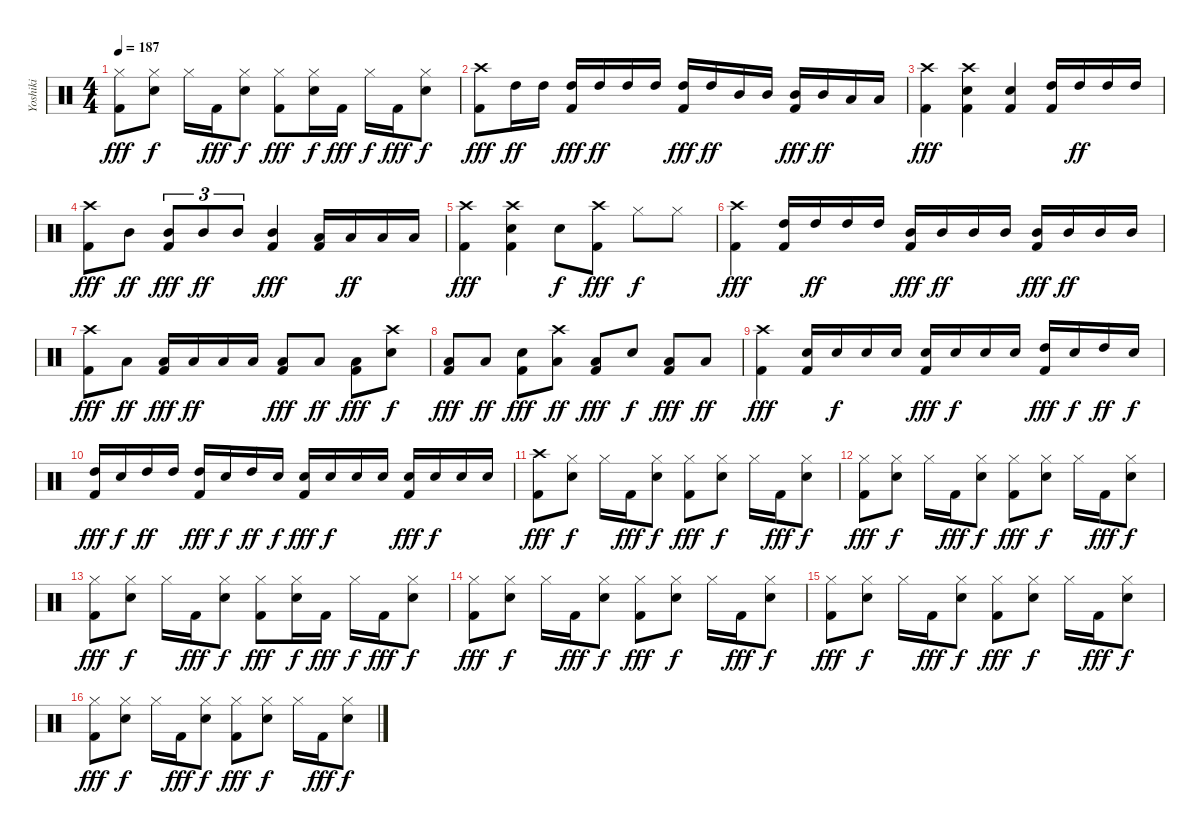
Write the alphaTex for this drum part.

\track ("Yoshiki" "Yoshiki") {instrument percussion}
\staff {score}
\articulation defaults
\ts (4 4)
\tempo 187
\clef neutral
\ks c
("Hi-Hat (closed)" "Kick (hit) 2").8{dy fff} ("Hi-Hat (closed)" "Electric Snare (hit)").8{dy f} "Hi-Hat (closed)".16 "Kick (hit) 2".16{dy fff} ("Hi-Hat (closed)" "Electric Snare (hit)").8{dy f} ("Hi-Hat (closed)" "Kick (hit) 2").8{dy fff} ("Hi-Hat (closed)" "Electric Snare (hit)").16{dy f} "Kick (hit) 2".16{dy fff} "Hi-Hat (closed)".16{dy f} "Kick (hit) 2".16{dy fff} ("Hi-Hat (closed)" "Electric Snare (hit)").8{dy f} |
("Crash high (hit)" "Kick (hit) 2").8{dy fff} "High Tom (hit)".16{dy ff} "High Tom (hit)".16 ("High Tom (hit)" "Kick (hit) 2").16{dy fff} "High Tom (hit)".16{dy ff} "High Tom (hit)".16 "High Tom (hit)".16 ("High Tom (hit)" "Kick (hit) 2").16{dy fff} "High Tom (hit)".16{dy ff} "Mid Tom (hit)".16 "Mid Tom (hit)".16 ("Mid Tom (hit)" "Kick (hit) 2").16{dy fff} "Mid Tom (hit)".16{dy ff} "Low Tom (hit)".16 "Low Tom (hit)".16 |
("Crash high (hit)" "Kick (hit) 2").4{dy fff} ("Crash high (hit)" "Electric Snare (hit)" "Kick (hit) 2").4 ("Electric Snare (hit)" "Kick (hit) 2").4 ("High Tom (hit)" "Kick (hit) 2").16 "High Tom (hit)".16{dy ff} "High Tom (hit)".16 "High Tom (hit)".16 |
("Crash high (hit)" "Kick (hit) 2").8{dy fff} "Mid Tom (hit)".8{dy ff} ("Mid Tom (hit)" "Kick (hit) 2").8{tu (3 2) dy fff} "Mid Tom (hit)".8{tu (3 2) dy ff} "Mid Tom (hit)".8{tu (3 2)} ("Mid Tom (hit)" "Kick (hit) 2").4{dy fff} ("Low Tom (hit)" "Kick (hit) 2").16 "Low Tom (hit)".16{dy ff} "Low Tom (hit)".16 "Low Tom (hit)".16 |
("Crash high (hit)" "Kick (hit) 2").4{dy fff} ("Crash high (hit)" "Electric Snare (hit)" "Kick (hit) 2").4 "Electric Snare (hit)".8{dy f} ("Crash high (hit)" "Kick (hit) 2").8{dy fff} "Hi-Hat (closed)".8{dy f} "Hi-Hat (closed)".8 |
("Crash high (hit)" "Kick (hit) 2").4{dy fff} ("High Tom (hit)" "Kick (hit) 2").16 "High Tom (hit)".16{dy ff} "High Tom (hit)".16 "High Tom (hit)".16 ("Mid Tom (hit)" "Kick (hit) 2").16{dy fff} "Mid Tom (hit)".16{dy ff} "Mid Tom (hit)".16 "Mid Tom (hit)".16 ("Mid Tom (hit)" "Kick (hit) 2").16{dy fff} "Mid Tom (hit)".16{dy ff} "Mid Tom (hit)".16 "Mid Tom (hit)".16 |
("Crash high (hit)" "Kick (hit) 2").8{dy fff} "Low Tom (hit)".8{dy ff} ("Low Tom (hit)" "Kick (hit) 2").16{dy fff} "Low Tom (hit)".16{dy ff} "Low Tom (hit)".16 "Low Tom (hit)".16 ("Low Tom (hit)" "Kick (hit) 2").8{dy fff} "Low Tom (hit)".8{dy ff} ("Low Tom (hit)" "Kick (hit) 2").8{dy fff} ("Crash high (hit)" "Electric Snare (hit)").8{dy f} |
("Low Tom (hit)" "Kick (hit) 2").8{dy fff} "Low Tom (hit)".8{dy ff} ("Electric Snare (hit)" "Kick (hit) 2").8{dy fff} ("Crash high (hit)" "Low Tom (hit)").8{dy ff} ("Low Tom (hit)" "Kick (hit) 2").8{dy fff} "Electric Snare (hit)".8{dy f} ("Low Tom (hit)" "Kick (hit) 2").8{dy fff} "Low Tom (hit)".8{dy ff} |
("Crash high (hit)" "Kick (hit) 2").4{dy fff} ("Electric Snare (hit)" "Kick (hit) 2").16 "Electric Snare (hit)".16{dy f} "Electric Snare (hit)".16 "Electric Snare (hit)".16 ("Electric Snare (hit)" "Kick (hit) 2").16{dy fff} "Electric Snare (hit)".16{dy f} "Electric Snare (hit)".16 "Electric Snare (hit)".16 ("High Tom (hit)" "Kick (hit) 2").16{dy fff} "Electric Snare (hit)".16{dy f} "High Tom (hit)".16{dy ff} "Electric Snare (hit)".16{dy f} |
("High Tom (hit)" "Kick (hit) 2").16{dy fff} "Electric Snare (hit)".16{dy f} "High Tom (hit)".16{dy ff} "High Tom (hit)".16 ("High Tom (hit)" "Kick (hit) 2").16{dy fff} "Electric Snare (hit)".16{dy f} "High Tom (hit)".16{dy ff} "Electric Snare (hit)".16{dy f} ("Electric Snare (hit)" "Kick (hit) 2").16{dy fff} "Electric Snare (hit)".16{dy f} "Electric Snare (hit)".16 "Electric Snare (hit)".16 ("Electric Snare (hit)" "Kick (hit) 2").16{dy fff} "Electric Snare (hit)".16{dy f} "Electric Snare (hit)".16 "Electric Snare (hit)".16 |
("Crash high (hit)" "Kick (hit) 2").8{dy fff} ("Hi-Hat (closed)" "Electric Snare (hit)").8{dy f} "Hi-Hat (closed)".16 "Kick (hit) 2".16{dy fff} ("Hi-Hat (closed)" "Electric Snare (hit)").8{dy f} ("Hi-Hat (closed)" "Kick (hit) 2").8{dy fff} ("Hi-Hat (closed)" "Electric Snare (hit)").8{dy f} "Hi-Hat (closed)".16 "Kick (hit) 2".16{dy fff} ("Hi-Hat (closed)" "Electric Snare (hit)").8{dy f} |
("Hi-Hat (closed)" "Kick (hit) 2").8{dy fff} ("Hi-Hat (closed)" "Electric Snare (hit)").8{dy f} "Hi-Hat (closed)".16 "Kick (hit) 2".16{dy fff} ("Hi-Hat (closed)" "Electric Snare (hit)").8{dy f} ("Hi-Hat (closed)" "Kick (hit) 2").8{dy fff} ("Hi-Hat (closed)" "Electric Snare (hit)").8{dy f} "Hi-Hat (closed)".16 "Kick (hit) 2".16{dy fff} ("Hi-Hat (closed)" "Electric Snare (hit)").8{dy f} |
("Hi-Hat (closed)" "Kick (hit) 2").8{dy fff} ("Hi-Hat (closed)" "Electric Snare (hit)").8{dy f} "Hi-Hat (closed)".16 "Kick (hit) 2".16{dy fff} ("Hi-Hat (closed)" "Electric Snare (hit)").8{dy f} ("Hi-Hat (closed)" "Kick (hit) 2").8{dy fff} ("Hi-Hat (closed)" "Electric Snare (hit)").16{dy f} "Kick (hit) 2".16{dy fff} "Hi-Hat (closed)".16{dy f} "Kick (hit) 2".16{dy fff} ("Hi-Hat (closed)" "Electric Snare (hit)").8{dy f} |
("Hi-Hat (closed)" "Kick (hit) 2").8{dy fff} ("Hi-Hat (closed)" "Electric Snare (hit)").8{dy f} "Hi-Hat (closed)".16 "Kick (hit) 2".16{dy fff} ("Hi-Hat (closed)" "Electric Snare (hit)").8{dy f} ("Hi-Hat (closed)" "Kick (hit) 2").8{dy fff} ("Hi-Hat (closed)" "Electric Snare (hit)").8{dy f} "Hi-Hat (closed)".16 "Kick (hit) 2".16{dy fff} ("Hi-Hat (closed)" "Electric Snare (hit)").8{dy f} |
("Hi-Hat (closed)" "Kick (hit) 2").8{dy fff} ("Hi-Hat (closed)" "Electric Snare (hit)").8{dy f} "Hi-Hat (closed)".16 "Kick (hit) 2".16{dy fff} ("Hi-Hat (closed)" "Electric Snare (hit)").8{dy f} ("Hi-Hat (closed)" "Kick (hit) 2").8{dy fff} ("Hi-Hat (closed)" "Electric Snare (hit)").8{dy f} "Hi-Hat (closed)".16 "Kick (hit) 2".16{dy fff} ("Hi-Hat (closed)" "Electric Snare (hit)").8{dy f} |
("Hi-Hat (closed)" "Kick (hit) 2").8{dy fff} ("Hi-Hat (closed)" "Electric Snare (hit)").8{dy f} "Hi-Hat (closed)".16 "Kick (hit) 2".16{dy fff} ("Hi-Hat (closed)" "Electric Snare (hit)").8{dy f} ("Hi-Hat (closed)" "Kick (hit) 2").8{dy fff} ("Hi-Hat (closed)" "Electric Snare (hit)").8{dy f} "Hi-Hat (closed)".16 "Kick (hit) 2".16{dy fff} ("Hi-Hat (closed)" "Electric Snare (hit)").8{dy f}
